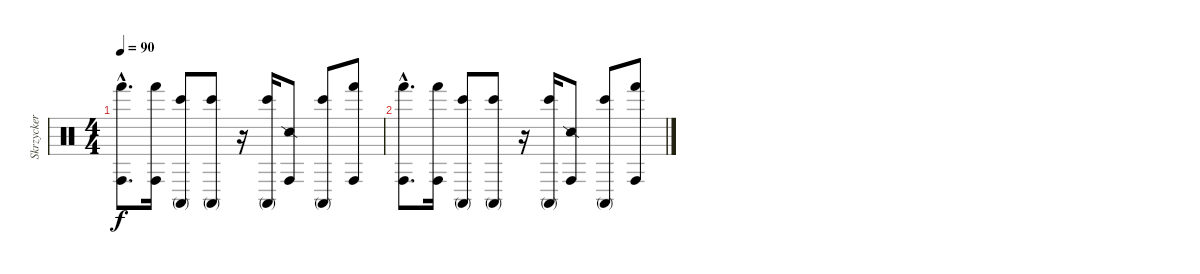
\track ("Skrzycker" "Skrzycker") {instrument percussion}
\staff {score}
\articulation defaults
\ts (4 4)
\tempo 90
\clef neutral
\ks c
("Conga high (hit)"{hac} "Hand (hit)"{hac}).8{d dy f} ("Conga high (hit)" "Hand (hit)").16 ("Conga high (mute)" "Bongo High (hit)").8 ("Conga high (mute)" "Bongo High (hit)").8 r.16 ("Conga high (mute)" "Bongo High (hit)").16 ("Conga high (hit)" "Snare (side stick) 2").8 ("Conga high (mute)" "Bongo High (hit)").8 ("Conga high (hit)" "Hand (hit)").8 |
("Conga high (hit)"{hac} "Hand (hit)"{hac}).8{d} ("Conga high (hit)" "Hand (hit)").16 ("Conga high (mute)" "Bongo High (hit)").8 ("Conga high (mute)" "Bongo High (hit)").8 r.16 ("Conga high (mute)" "Bongo High (hit)").16 ("Conga high (hit)" "Snare (side stick) 2").8 ("Conga high (mute)" "Bongo High (hit)").8 ("Conga high (hit)" "Hand (hit)").8
